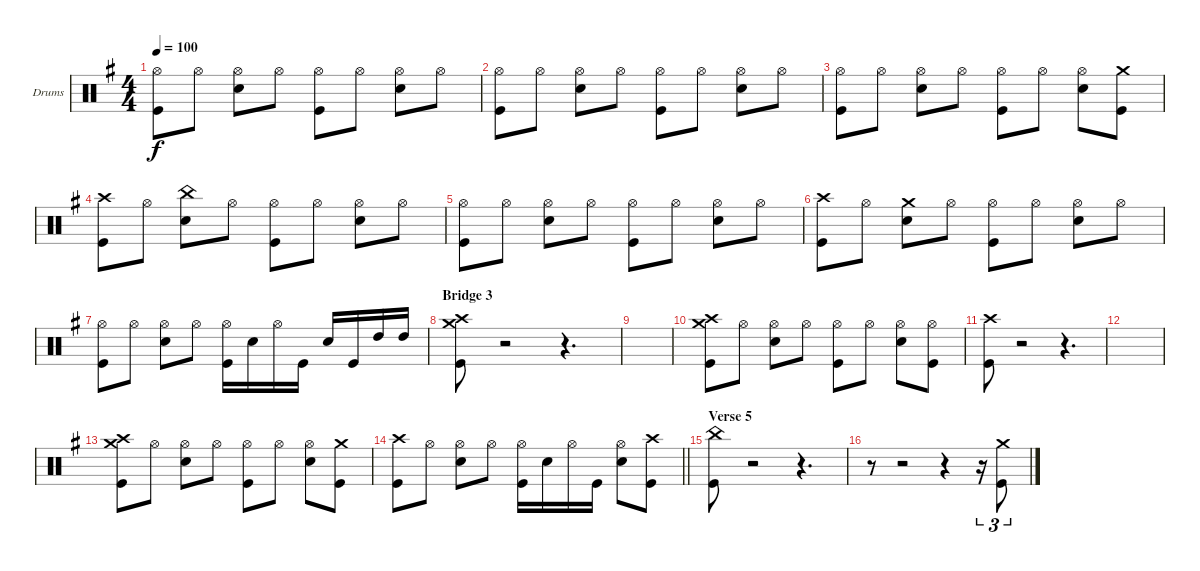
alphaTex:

\bracketExtendMode groupsimilarinstruments
\firstSystemTrackNameOrientation horizontal
\otherSystemsTrackNameOrientation horizontal
\track ("drums (Anton Zulganov)" "Drums") {instrument percussion}
\staff {score}
\articulation defaults
\ts (4 4)
\tempo 100
\clef neutral
\ks eminor
("Kick (hit)" "Hi-Hat (open)").8{dy f} "Hi-Hat (open)".8 ("Hi-Hat (open)" "Snare (hit) 2").8 "Hi-Hat (open)".8 ("Hi-Hat (open)" "Kick (hit)").8 "Hi-Hat (open)".8 ("Hi-Hat (open)" "Snare (hit) 2").8 "Hi-Hat (open)".8 |
("Kick (hit)" "Hi-Hat (open)").8 "Hi-Hat (open)".8 ("Hi-Hat (open)" "Snare (hit) 2").8 "Hi-Hat (open)".8 ("Hi-Hat (open)" "Kick (hit)").8 "Hi-Hat (open)".8 ("Hi-Hat (open)" "Snare (hit) 2").8 "Hi-Hat (open)".8 |
("Kick (hit)" "Hi-Hat (open)").8 "Hi-Hat (open)".8 ("Hi-Hat (open)" "Snare (hit) 2").8 "Hi-Hat (open)".8 ("Hi-Hat (open)" "Kick (hit)").8 "Hi-Hat (open)".8 ("Hi-Hat (open)" "Snare (hit) 2").8 ("Kick (hit)" "Crash medium (hit)").8 |
("Kick (hit)" "Crash high (hit)").8 "Hi-Hat (open)".8 ("Snare (hit) 2" "China (hit)").8 "Hi-Hat (open)".8 ("Hi-Hat (open)" "Kick (hit)").8 "Hi-Hat (open)".8 ("Hi-Hat (open)" "Snare (hit) 2").8 "Hi-Hat (open)".8 |
("Kick (hit)" "Hi-Hat (open)").8 "Hi-Hat (open)".8 ("Hi-Hat (open)" "Snare (hit) 2").8 "Hi-Hat (open)".8 ("Hi-Hat (open)" "Kick (hit)").8 "Hi-Hat (open)".8 ("Hi-Hat (open)" "Snare (hit) 2").8 "Hi-Hat (open)".8 |
("Kick (hit)" "Crash high (hit)").8 "Hi-Hat (open)".8 ("Snare (hit) 2" "Crash medium (hit)").8 "Hi-Hat (open)".8 ("Hi-Hat (open)" "Kick (hit)").8 "Hi-Hat (open)".8 ("Hi-Hat (open)" "Snare (hit) 2").8 "Hi-Hat (open)".8 |
("Kick (hit)" "Hi-Hat (open)").8 "Hi-Hat (open)".8 ("Hi-Hat (open)" "Snare (hit) 2").8 "Hi-Hat (open)".8 ("Hi-Hat (open)" "Kick (hit)").16 "Snare (hit) 2".16 "Hi-Hat (open)".16 "Kick (hit)".16 "Snare (hit) 2".16 "Kick (hit)".16 "High Tom (hit)".16 "High Tom (hit)".16 |
\section ("" "Bridge 3")
("Kick (hit)" "Crash medium (hit)" "Crash high (hit)").8 r.2 r.4{d} |
|
("Kick (hit)" "Crash medium (hit)" "Crash high (hit)").8 "Hi-Hat (open)".8 ("Hi-Hat (open)" "Snare (hit) 2").8 "Hi-Hat (open)".8 ("Hi-Hat (open)" "Kick (hit)").8 "Hi-Hat (open)".8 ("Hi-Hat (open)" "Snare (hit) 2").8 ("Hi-Hat (open)" "Kick (hit)").8 |
("Kick (hit)" "Crash high (hit)").8 r.2 r.4{d} |
|
("Kick (hit)" "Crash medium (hit)" "Crash high (hit)").8 "Hi-Hat (open)".8 ("Hi-Hat (open)" "Snare (hit) 2").8 "Hi-Hat (open)".8 ("Hi-Hat (open)" "Kick (hit)").8 "Hi-Hat (open)".8 ("Hi-Hat (open)" "Snare (hit) 2").8 ("Kick (hit)" "Crash medium (hit)").8 |
\barLineRight lightlight
("Kick (hit)" "Crash high (hit)").8 "Hi-Hat (open)".8 ("Hi-Hat (open)" "Snare (hit) 2").8 "Hi-Hat (open)".8 ("Hi-Hat (open)" "Kick (hit)").16 "Snare (hit) 2".16 "Hi-Hat (open)".16 "Kick (hit)".16 ("Hi-Hat (open)" "Snare (hit) 2").8 ("Kick (hit)" "Crash high (hit)").8 |
\section ("" "Verse 5")
("China (hit)" "Kick (hit)").8 r.2 r.4{d} |
r.8 r.2 r.4 r.16{tu (3 2)} ("Kick (hit)" "Crash medium (hit)").8{tu (3 2)}
